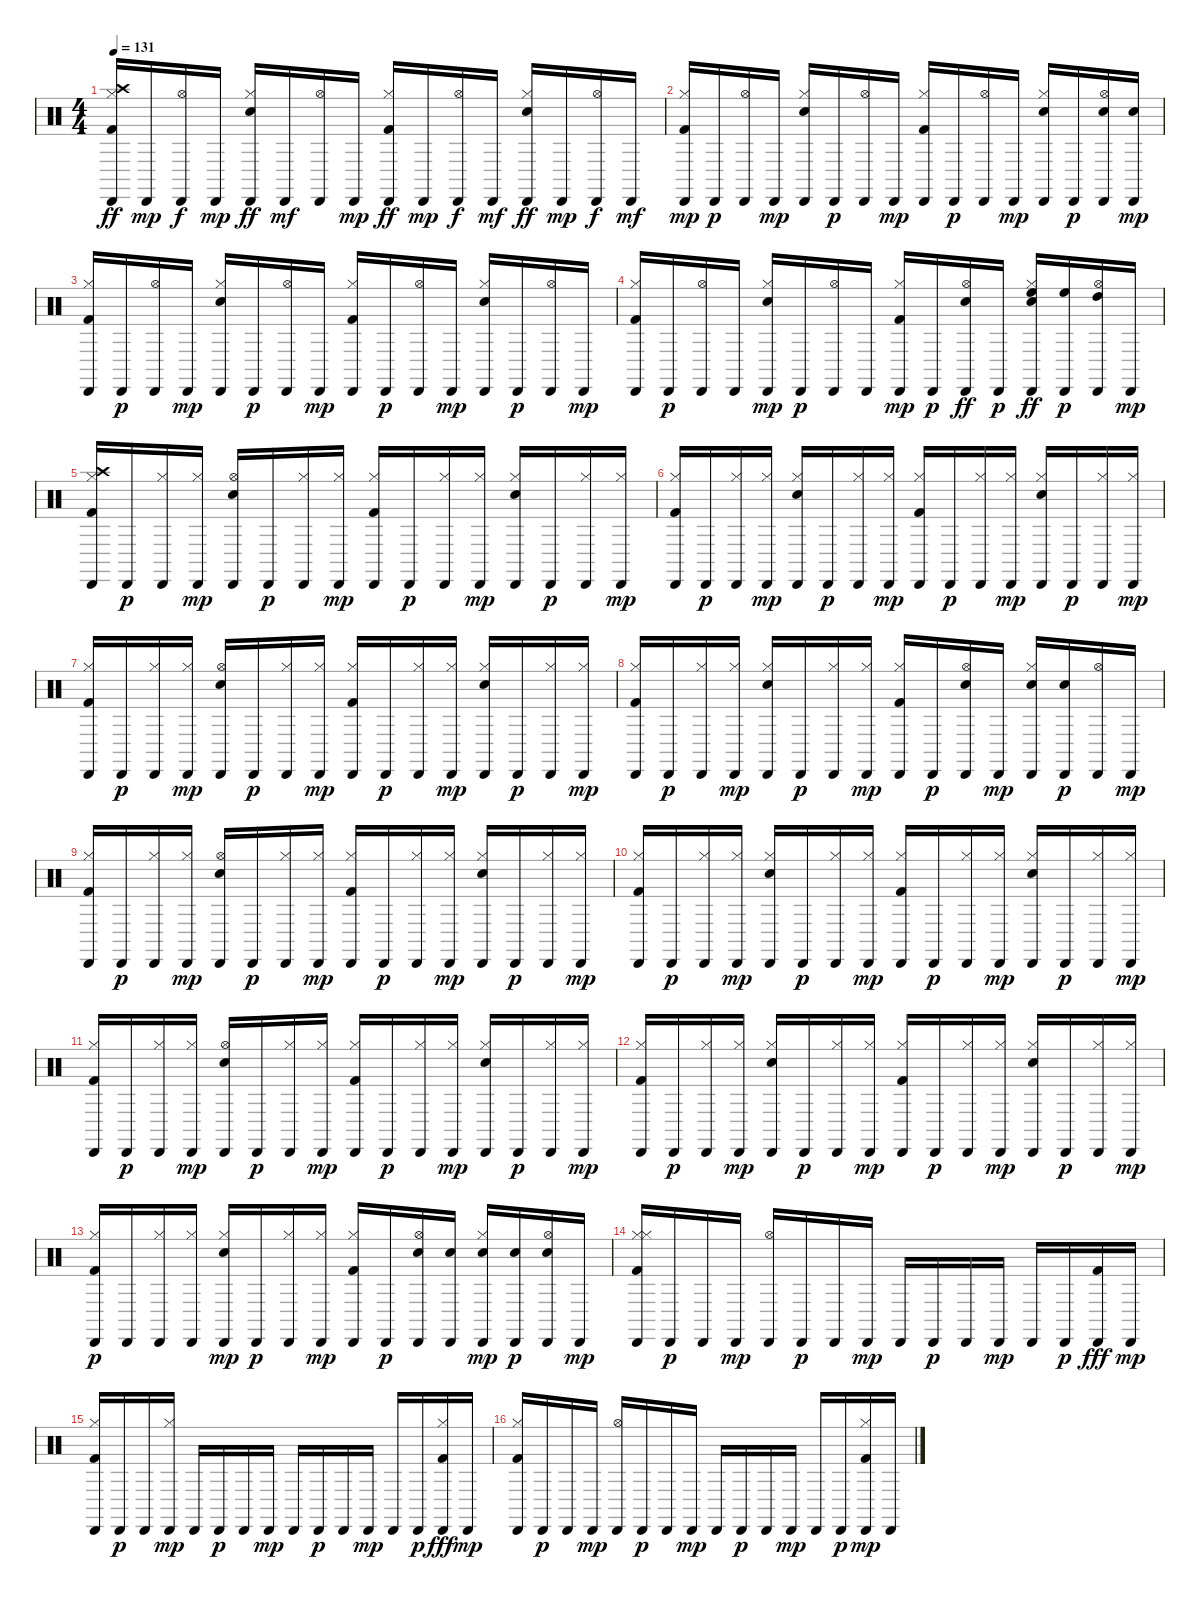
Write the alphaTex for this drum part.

\track "" {instrument percussion}
\staff {score}
\articulation defaults
\ts (4 4)
\tempo 131
\clef neutral
\ks c
("Kick (hit) 2" "Hi-Hat (closed)" "Crash high (hit)" "Cabasa (hit)").16{dy ff} "Cabasa (hit)".16{dy mp} ("Hi-Hat (open)" "Cabasa (hit)").16{dy f} "Cabasa (hit)".16{dy mp} ("Snare (hit) 2" "Hi-Hat (closed)" "Cabasa (hit)").16{dy ff} "Cabasa (hit)".16{dy mf} ("Hi-Hat (open)" "Cabasa (hit)").16 "Cabasa (hit)".16{dy mp} ("Kick (hit) 2" "Hi-Hat (closed)" "Cabasa (hit)").16{dy ff} "Cabasa (hit)".16{dy mp} ("Hi-Hat (open)" "Cabasa (hit)").16{dy f} "Cabasa (hit)".16{dy mf} ("Snare (hit) 2" "Hi-Hat (closed)" "Cabasa (hit)").16{dy ff} "Cabasa (hit)".16{dy mp} ("Hi-Hat (open)" "Cabasa (hit)").16{dy f} "Cabasa (hit)".16{dy mf} |
("Kick (hit) 2" "Hi-Hat (closed)" "Cabasa (hit)").16{dy mp} "Cabasa (hit)".16{dy p} ("Hi-Hat (open)" "Cabasa (hit)").16 "Cabasa (hit)".16{dy mp} ("Snare (hit) 2" "Hi-Hat (closed)" "Cabasa (hit)").16 "Cabasa (hit)".16{dy p} ("Hi-Hat (open)" "Cabasa (hit)").16 "Cabasa (hit)".16{dy mp} ("Kick (hit) 2" "Hi-Hat (closed)" "Cabasa (hit)").16 "Cabasa (hit)".16{dy p} ("Hi-Hat (open)" "Cabasa (hit)").16 "Cabasa (hit)".16{dy mp} ("Snare (hit) 2" "Hi-Hat (closed)" "Cabasa (hit)").16 "Cabasa (hit)".16{dy p} ("Snare (hit) 2" "Hi-Hat (open)" "Cabasa (hit)").16 ("Snare (hit) 2" "Cabasa (hit)").16{dy mp} |
("Kick (hit) 2" "Hi-Hat (closed)" "Cabasa (hit)").16 "Cabasa (hit)".16{dy p} ("Hi-Hat (open)" "Cabasa (hit)").16 "Cabasa (hit)".16{dy mp} ("Snare (hit) 2" "Hi-Hat (closed)" "Cabasa (hit)").16 "Cabasa (hit)".16{dy p} ("Hi-Hat (open)" "Cabasa (hit)").16 "Cabasa (hit)".16{dy mp} ("Kick (hit) 2" "Hi-Hat (closed)" "Cabasa (hit)").16 "Cabasa (hit)".16{dy p} ("Hi-Hat (open)" "Cabasa (hit)").16 "Cabasa (hit)".16{dy mp} ("Snare (hit) 2" "Hi-Hat (closed)" "Cabasa (hit)").16 "Cabasa (hit)".16{dy p} ("Hi-Hat (open)" "Cabasa (hit)").16 "Cabasa (hit)".16{dy mp} |
("Kick (hit) 2" "Hi-Hat (closed)" "Cabasa (hit)").16 "Cabasa (hit)".16{dy p} ("Hi-Hat (open)" "Cabasa (hit)").16 "Cabasa (hit)".16 ("Snare (hit) 2" "Hi-Hat (closed)" "Cabasa (hit)").16{dy mp} "Cabasa (hit)".16{dy p} ("Hi-Hat (open)" "Cabasa (hit)").16 "Cabasa (hit)".16 ("Kick (hit) 2" "Hi-Hat (closed)" "Cabasa (hit)").16{dy mp} "Cabasa (hit)".16{dy p} ("Hi-Hat (open)" "Cabasa (hit)" "Electric Snare (hit)").16{dy ff} "Cabasa (hit)".16{dy p} ("Snare (hit) 2" "Hi-Hat (closed)" "Cabasa (hit)" "High Floor Tom (hit)").16{dy ff} ("Cabasa (hit)" "High Floor Tom (hit)").16{dy p} ("Hi-Hat (open)" "High Tom (hit)" "Cabasa (hit)").16 "Cabasa (hit)".16{dy mp} |
("Kick (hit) 2" "Hi-Hat (closed)" "Crash high (hit)" "Cabasa (hit)").16 "Cabasa (hit)".16{dy p} ("Hi-Hat (closed)" "Cabasa (hit)").16 ("Hi-Hat (closed)" "Cabasa (hit)").16{dy mp} ("Snare (hit) 2" "Hi-Hat (open)" "Cabasa (hit)").16 "Cabasa (hit)".16{dy p} ("Hi-Hat (closed)" "Cabasa (hit)").16 ("Hi-Hat (closed)" "Cabasa (hit)").16{dy mp} ("Kick (hit) 2" "Hi-Hat (closed)" "Cabasa (hit)").16 "Cabasa (hit)".16{dy p} ("Hi-Hat (closed)" "Cabasa (hit)").16 ("Hi-Hat (closed)" "Cabasa (hit)").16{dy mp} ("Snare (hit) 2" "Hi-Hat (closed)" "Cabasa (hit)").16 "Cabasa (hit)".16{dy p} ("Hi-Hat (closed)" "Cabasa (hit)").16 ("Hi-Hat (closed)" "Cabasa (hit)").16{dy mp} |
("Kick (hit) 2" "Hi-Hat (closed)" "Cabasa (hit)").16 "Cabasa (hit)".16{dy p} ("Hi-Hat (closed)" "Cabasa (hit)").16 ("Hi-Hat (closed)" "Cabasa (hit)").16{dy mp} ("Snare (hit) 2" "Hi-Hat (closed)" "Cabasa (hit)").16 "Cabasa (hit)".16{dy p} ("Hi-Hat (closed)" "Cabasa (hit)").16 ("Hi-Hat (closed)" "Cabasa (hit)").16{dy mp} ("Kick (hit) 2" "Hi-Hat (closed)" "Cabasa (hit)").16 "Cabasa (hit)".16{dy p} ("Hi-Hat (closed)" "Cabasa (hit)").16 ("Hi-Hat (closed)" "Cabasa (hit)").16{dy mp} ("Snare (hit) 2" "Hi-Hat (closed)" "Cabasa (hit)").16 "Cabasa (hit)".16{dy p} ("Hi-Hat (closed)" "Cabasa (hit)").16 ("Hi-Hat (closed)" "Cabasa (hit)").16{dy mp} |
("Kick (hit) 2" "Hi-Hat (closed)" "Cabasa (hit)").16 "Cabasa (hit)".16{dy p} ("Hi-Hat (closed)" "Cabasa (hit)").16 ("Hi-Hat (closed)" "Cabasa (hit)").16{dy mp} ("Snare (hit) 2" "Hi-Hat (open)" "Cabasa (hit)").16 "Cabasa (hit)".16{dy p} ("Hi-Hat (closed)" "Cabasa (hit)").16 ("Hi-Hat (closed)" "Cabasa (hit)").16{dy mp} ("Kick (hit) 2" "Hi-Hat (closed)" "Cabasa (hit)").16 "Cabasa (hit)".16{dy p} ("Hi-Hat (closed)" "Cabasa (hit)").16 ("Hi-Hat (closed)" "Cabasa (hit)").16{dy mp} ("Snare (hit) 2" "Hi-Hat (closed)" "Cabasa (hit)").16 "Cabasa (hit)".16{dy p} ("Hi-Hat (closed)" "Cabasa (hit)").16 ("Hi-Hat (closed)" "Cabasa (hit)").16{dy mp} |
("Kick (hit) 2" "Hi-Hat (closed)" "Cabasa (hit)").16 "Cabasa (hit)".16{dy p} ("Hi-Hat (closed)" "Cabasa (hit)").16 ("Hi-Hat (closed)" "Cabasa (hit)").16{dy mp} ("Snare (hit) 2" "Hi-Hat (closed)" "Cabasa (hit)").16 "Cabasa (hit)".16{dy p} ("Hi-Hat (closed)" "Cabasa (hit)").16 ("Hi-Hat (closed)" "Cabasa (hit)").16{dy mp} ("Kick (hit) 2" "Hi-Hat (closed)" "Cabasa (hit)").16 "Cabasa (hit)".16{dy p} ("Snare (hit) 2" "Hi-Hat (open)" "Cabasa (hit)").16 "Cabasa (hit)".16{dy mp} ("Snare (hit) 2" "Hi-Hat (closed)" "Cabasa (hit)").16 ("Snare (hit) 2" "Cabasa (hit)").16{dy p} ("Hi-Hat (open)" "Cabasa (hit)").16 "Cabasa (hit)".16{dy mp} |
("Kick (hit) 2" "Hi-Hat (closed)" "Cabasa (hit)").16 "Cabasa (hit)".16{dy p} ("Hi-Hat (closed)" "Cabasa (hit)").16 ("Hi-Hat (closed)" "Cabasa (hit)").16{dy mp} ("Snare (hit) 2" "Hi-Hat (open)" "Cabasa (hit)").16 "Cabasa (hit)".16{dy p} ("Hi-Hat (closed)" "Cabasa (hit)").16 ("Hi-Hat (closed)" "Cabasa (hit)").16{dy mp} ("Kick (hit) 2" "Hi-Hat (closed)" "Cabasa (hit)").16 "Cabasa (hit)".16{dy p} ("Hi-Hat (closed)" "Cabasa (hit)").16 ("Hi-Hat (closed)" "Cabasa (hit)").16{dy mp} ("Snare (hit) 2" "Hi-Hat (closed)" "Cabasa (hit)").16 "Cabasa (hit)".16{dy p} ("Hi-Hat (closed)" "Cabasa (hit)").16 ("Hi-Hat (closed)" "Cabasa (hit)").16{dy mp} |
("Kick (hit) 2" "Hi-Hat (closed)" "Cabasa (hit)").16 "Cabasa (hit)".16{dy p} ("Hi-Hat (closed)" "Cabasa (hit)").16 ("Hi-Hat (closed)" "Cabasa (hit)").16{dy mp} ("Snare (hit) 2" "Hi-Hat (closed)" "Cabasa (hit)").16 "Cabasa (hit)".16{dy p} ("Hi-Hat (closed)" "Cabasa (hit)").16 ("Hi-Hat (closed)" "Cabasa (hit)").16{dy mp} ("Kick (hit) 2" "Hi-Hat (closed)" "Cabasa (hit)").16 "Cabasa (hit)".16{dy p} ("Hi-Hat (closed)" "Cabasa (hit)").16 ("Hi-Hat (closed)" "Cabasa (hit)").16{dy mp} ("Snare (hit) 2" "Hi-Hat (closed)" "Cabasa (hit)").16 "Cabasa (hit)".16{dy p} ("Hi-Hat (closed)" "Cabasa (hit)").16 ("Hi-Hat (closed)" "Cabasa (hit)").16{dy mp} |
("Kick (hit) 2" "Hi-Hat (closed)" "Cabasa (hit)").16 "Cabasa (hit)".16{dy p} ("Hi-Hat (closed)" "Cabasa (hit)").16 ("Hi-Hat (closed)" "Cabasa (hit)").16{dy mp} ("Snare (hit) 2" "Hi-Hat (open)" "Cabasa (hit)").16 "Cabasa (hit)".16{dy p} ("Hi-Hat (closed)" "Cabasa (hit)").16 ("Hi-Hat (closed)" "Cabasa (hit)").16{dy mp} ("Kick (hit) 2" "Hi-Hat (closed)" "Cabasa (hit)").16 "Cabasa (hit)".16{dy p} ("Hi-Hat (closed)" "Cabasa (hit)").16 ("Hi-Hat (closed)" "Cabasa (hit)").16{dy mp} ("Snare (hit) 2" "Hi-Hat (closed)" "Cabasa (hit)").16 "Cabasa (hit)".16{dy p} ("Hi-Hat (closed)" "Cabasa (hit)").16 ("Hi-Hat (closed)" "Cabasa (hit)").16{dy mp} |
("Kick (hit) 2" "Hi-Hat (closed)" "Cabasa (hit)").16 "Cabasa (hit)".16{dy p} ("Hi-Hat (closed)" "Cabasa (hit)").16 ("Hi-Hat (closed)" "Cabasa (hit)").16{dy mp} ("Snare (hit) 2" "Hi-Hat (closed)" "Cabasa (hit)").16 "Cabasa (hit)".16{dy p} ("Hi-Hat (closed)" "Cabasa (hit)").16 ("Hi-Hat (closed)" "Cabasa (hit)").16{dy mp} ("Kick (hit) 2" "Hi-Hat (closed)" "Cabasa (hit)").16 "Cabasa (hit)".16{dy p} ("Hi-Hat (closed)" "Cabasa (hit)").16 ("Hi-Hat (closed)" "Cabasa (hit)").16{dy mp} ("Snare (hit) 2" "Hi-Hat (closed)" "Cabasa (hit)").16 "Cabasa (hit)".16{dy p} ("Hi-Hat (closed)" "Cabasa (hit)").16 ("Hi-Hat (closed)" "Cabasa (hit)").16{dy mp} |
("Kick (hit) 2" "Hi-Hat (closed)" "Cabasa (hit)").16{dy p} "Cabasa (hit)".16 ("Hi-Hat (closed)" "Cabasa (hit)").16 ("Hi-Hat (closed)" "Cabasa (hit)").16 ("Snare (hit) 2" "Hi-Hat (closed)" "Cabasa (hit)").16{dy mp} "Cabasa (hit)".16{dy p} ("Hi-Hat (closed)" "Cabasa (hit)").16 ("Hi-Hat (closed)" "Cabasa (hit)").16{dy mp} ("Kick (hit) 2" "Hi-Hat (closed)" "Cabasa (hit)").16 "Cabasa (hit)".16{dy p} ("Snare (hit) 2" "Hi-Hat (open)" "Cabasa (hit)").16 ("Snare (hit) 2" "Cabasa (hit)").16 ("Snare (hit) 2" "Hi-Hat (closed)" "Cabasa (hit)").16{dy mp} ("Snare (hit) 2" "Cabasa (hit)").16{dy p} ("Snare (hit) 2" "Hi-Hat (open)" "Cabasa (hit)").16 "Cabasa (hit)".16{dy mp} |
("Hi-Hat (closed)" "Cabasa (hit)" "Kick (hit) 2" "Hi-Hat (closed)").16 "Cabasa (hit)".16{dy p} "Cabasa (hit)".16 "Cabasa (hit)".16{dy mp} ("Hi-Hat (open)" "Cabasa (hit)").16 "Cabasa (hit)".16{dy p} "Cabasa (hit)".16 "Cabasa (hit)".16{dy mp} "Cabasa (hit)".16 "Cabasa (hit)".16{dy p} "Cabasa (hit)".16 "Cabasa (hit)".16{dy mp} "Cabasa (hit)".16 "Cabasa (hit)".16{dy p} ("Cabasa (hit)" "Kick (hit) 2").16{dy fff} "Cabasa (hit)".16{dy mp} |
("Cabasa (hit)" "Kick (hit) 2" "Hi-Hat (closed)").16 "Cabasa (hit)".16{dy p} "Cabasa (hit)".16 ("Cabasa (hit)" "Hi-Hat (closed)").16{dy mp} "Cabasa (hit)".16 "Cabasa (hit)".16{dy p} "Cabasa (hit)".16 "Cabasa (hit)".16{dy mp} "Cabasa (hit)".16 "Cabasa (hit)".16{dy p} "Cabasa (hit)".16 "Cabasa (hit)".16{dy mp} "Cabasa (hit)".16 "Cabasa (hit)".16{dy p} ("Cabasa (hit)" "Hi-Hat (closed)" "Kick (hit) 2").16{dy fff} "Cabasa (hit)".16{dy mp} |
("Cabasa (hit)" "Kick (hit) 2" "Hi-Hat (closed)").16 "Cabasa (hit)".16{dy p} "Cabasa (hit)".16 "Cabasa (hit)".16{dy mp} ("Hi-Hat (open)" "Cabasa (hit)").16 "Cabasa (hit)".16{dy p} "Cabasa (hit)".16 "Cabasa (hit)".16{dy mp} "Cabasa (hit)".16 "Cabasa (hit)".16{dy p} "Cabasa (hit)".16 "Cabasa (hit)".16{dy mp} "Cabasa (hit)".16 "Cabasa (hit)".16{dy p} ("Cabasa (hit)" "Kick (hit) 2" "Hi-Hat (closed)").16{dy mp} "Cabasa (hit)".16
